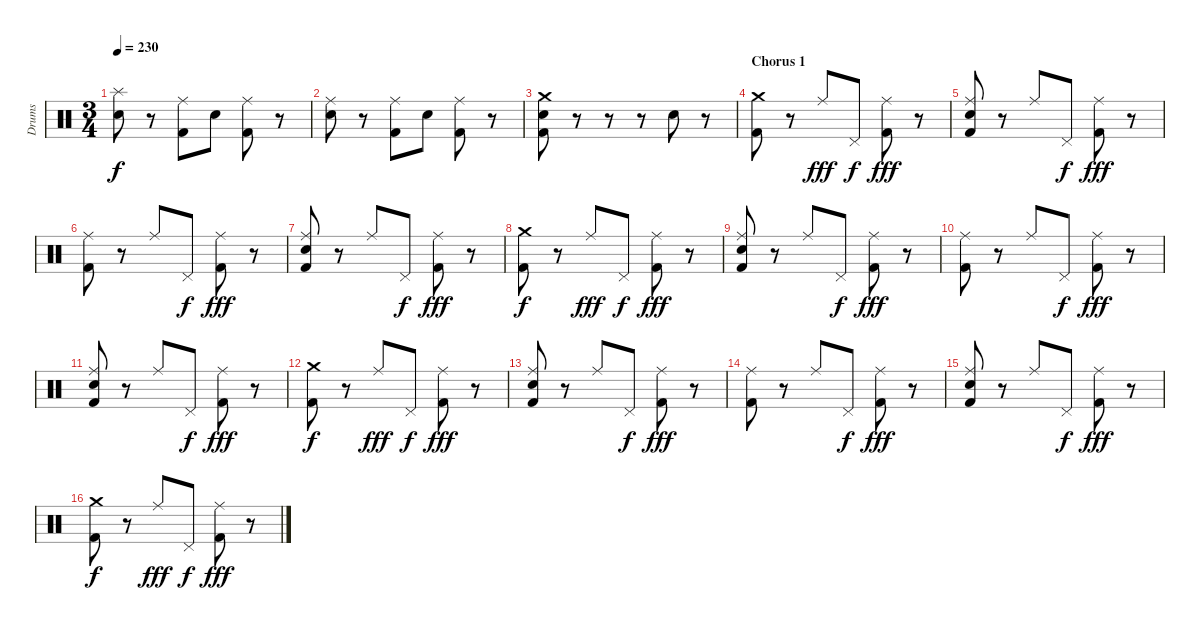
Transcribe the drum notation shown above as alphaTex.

\track ("Drums" "Drums") {instrument percussion}
\staff {score}
\articulation defaults
\ts (3 4)
\tempo 230
\clef neutral
\ks c
("Splash (hit)" "Electric Snare (hit)").8{dy f} r.8 ("Ride (middle)" "Kick (hit) 2").8 "Electric Snare (hit)".8 ("Ride (middle)" "Kick (hit) 2").8 r.8 |
("Ride (middle)" "Electric Snare (hit)").8 r.8 ("Ride (middle)" "Kick (hit) 2").8 "Electric Snare (hit)".8 ("Ride (middle)" "Kick (hit) 2").8 r.8 |
("Crash medium (hit)" "Electric Snare (hit)" "Kick (hit) 2").8 r.8 r.8 r.8 "Electric Snare (hit)".8 r.8 |
\section ("" "Chorus 1")
("Crash medium (hit)" "Kick (hit) 2").8 r.8 "Ride (middle)".8{dy fff} "Pedal Hi-Hat (hit)".8{dy f} ("Ride (middle)" "Kick (hit) 2").8{dy fff} r.8 |
("Ride (middle)" "Electric Snare (hit)" "Kick (hit) 2").8 r.8 "Ride (middle)".8 "Pedal Hi-Hat (hit)".8{dy f} ("Ride (middle)" "Kick (hit) 2").8{dy fff} r.8 |
("Ride (middle)" "Kick (hit) 2").8 r.8 "Ride (middle)".8 "Pedal Hi-Hat (hit)".8{dy f} ("Ride (middle)" "Kick (hit) 2").8{dy fff} r.8 |
("Ride (middle)" "Electric Snare (hit)" "Kick (hit) 2").8 r.8 "Ride (middle)".8 "Pedal Hi-Hat (hit)".8{dy f} ("Ride (middle)" "Kick (hit) 2").8{dy fff} r.8 |
("Crash medium (hit)" "Kick (hit) 2").8{dy f} r.8 "Ride (middle)".8{dy fff} "Pedal Hi-Hat (hit)".8{dy f} ("Ride (middle)" "Kick (hit) 2").8{dy fff} r.8 |
("Ride (middle)" "Electric Snare (hit)" "Kick (hit) 2").8 r.8 "Ride (middle)".8 "Pedal Hi-Hat (hit)".8{dy f} ("Ride (middle)" "Kick (hit) 2").8{dy fff} r.8 |
("Ride (middle)" "Kick (hit) 2").8 r.8 "Ride (middle)".8 "Pedal Hi-Hat (hit)".8{dy f} ("Ride (middle)" "Kick (hit) 2").8{dy fff} r.8 |
("Ride (middle)" "Electric Snare (hit)" "Kick (hit) 2").8 r.8 "Ride (middle)".8 "Pedal Hi-Hat (hit)".8{dy f} ("Ride (middle)" "Kick (hit) 2").8{dy fff} r.8 |
("Crash medium (hit)" "Kick (hit) 2").8{dy f} r.8 "Ride (middle)".8{dy fff} "Pedal Hi-Hat (hit)".8{dy f} ("Ride (middle)" "Kick (hit) 2").8{dy fff} r.8 |
("Ride (middle)" "Electric Snare (hit)" "Kick (hit) 2").8 r.8 "Ride (middle)".8 "Pedal Hi-Hat (hit)".8{dy f} ("Ride (middle)" "Kick (hit) 2").8{dy fff} r.8 |
("Ride (middle)" "Kick (hit) 2").8 r.8 "Ride (middle)".8 "Pedal Hi-Hat (hit)".8{dy f} ("Ride (middle)" "Kick (hit) 2").8{dy fff} r.8 |
("Ride (middle)" "Electric Snare (hit)" "Kick (hit) 2").8 r.8 "Ride (middle)".8 "Pedal Hi-Hat (hit)".8{dy f} ("Ride (middle)" "Kick (hit) 2").8{dy fff} r.8 |
("Crash medium (hit)" "Kick (hit) 2").8{dy f} r.8 "Ride (middle)".8{dy fff} "Pedal Hi-Hat (hit)".8{dy f} ("Ride (middle)" "Kick (hit) 2").8{dy fff} r.8
